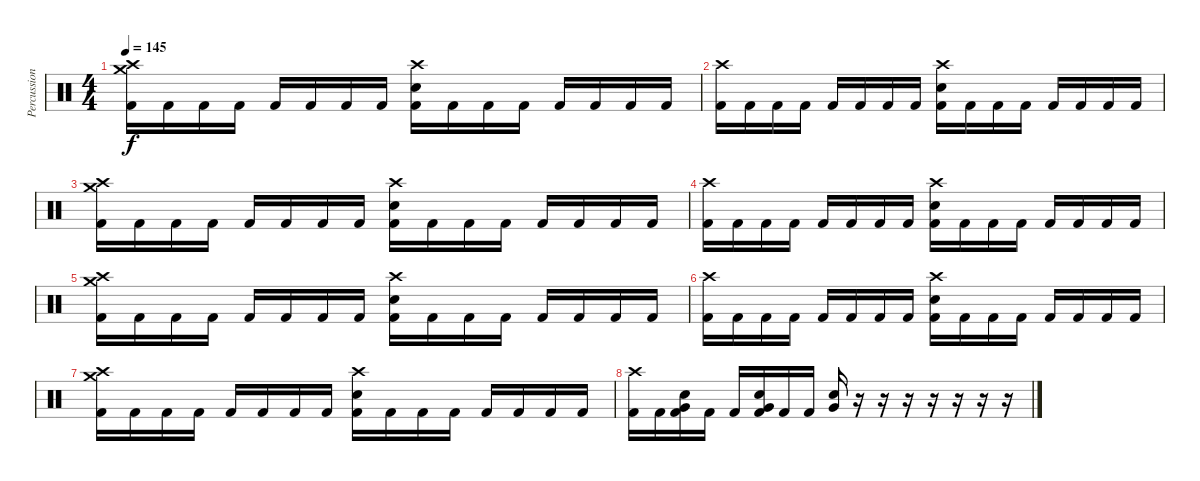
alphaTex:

\track ("Percussion" "Percussion") {instrument percussion}
\staff {score}
\articulation defaults
\ts (4 4)
\section ("" "")
\tempo 145
\clef neutral
\ks c
("Crash high (hit)" "Crash medium (hit)" "Kick (hit) 2").16{dy f} "Kick (hit) 2".16 "Kick (hit) 2".16 "Kick (hit) 2".16 "Kick (hit) 2".16 "Kick (hit) 2".16 "Kick (hit) 2".16 "Kick (hit) 2".16 ("Crash high (hit)" "Snare (hit) 2" "Kick (hit) 2").16 "Kick (hit) 2".16 "Kick (hit) 2".16 "Kick (hit) 2".16 "Kick (hit) 2".16 "Kick (hit) 2".16 "Kick (hit) 2".16 "Kick (hit) 2".16 |
("Crash high (hit)" "Kick (hit) 2").16 "Kick (hit) 2".16 "Kick (hit) 2".16 "Kick (hit) 2".16 "Kick (hit) 2".16 "Kick (hit) 2".16 "Kick (hit) 2".16 "Kick (hit) 2".16 ("Crash high (hit)" "Snare (hit) 2" "Kick (hit) 2").16 "Kick (hit) 2".16 "Kick (hit) 2".16 "Kick (hit) 2".16 "Kick (hit) 2".16 "Kick (hit) 2".16 "Kick (hit) 2".16 "Kick (hit) 2".16 |
("Crash high (hit)" "Crash medium (hit)" "Kick (hit) 2").16 "Kick (hit) 2".16 "Kick (hit) 2".16 "Kick (hit) 2".16 "Kick (hit) 2".16 "Kick (hit) 2".16 "Kick (hit) 2".16 "Kick (hit) 2".16 ("Crash high (hit)" "Snare (hit) 2" "Kick (hit) 2").16 "Kick (hit) 2".16 "Kick (hit) 2".16 "Kick (hit) 2".16 "Kick (hit) 2".16 "Kick (hit) 2".16 "Kick (hit) 2".16 "Kick (hit) 2".16 |
("Crash high (hit)" "Kick (hit) 2").16 "Kick (hit) 2".16 "Kick (hit) 2".16 "Kick (hit) 2".16 "Kick (hit) 2".16 "Kick (hit) 2".16 "Kick (hit) 2".16 "Kick (hit) 2".16 ("Crash high (hit)" "Snare (hit) 2" "Kick (hit) 2").16 "Kick (hit) 2".16 "Kick (hit) 2".16 "Kick (hit) 2".16 "Kick (hit) 2".16 "Kick (hit) 2".16 "Kick (hit) 2".16 "Kick (hit) 2".16 |
("Crash high (hit)" "Crash medium (hit)" "Kick (hit) 2").16 "Kick (hit) 2".16 "Kick (hit) 2".16 "Kick (hit) 2".16 "Kick (hit) 2".16 "Kick (hit) 2".16 "Kick (hit) 2".16 "Kick (hit) 2".16 ("Crash high (hit)" "Snare (hit) 2" "Kick (hit) 2").16 "Kick (hit) 2".16 "Kick (hit) 2".16 "Kick (hit) 2".16 "Kick (hit) 2".16 "Kick (hit) 2".16 "Kick (hit) 2".16 "Kick (hit) 2".16 |
("Crash high (hit)" "Kick (hit) 2").16 "Kick (hit) 2".16 "Kick (hit) 2".16 "Kick (hit) 2".16 "Kick (hit) 2".16 "Kick (hit) 2".16 "Kick (hit) 2".16 "Kick (hit) 2".16 ("Crash high (hit)" "Snare (hit) 2" "Kick (hit) 2").16 "Kick (hit) 2".16 "Kick (hit) 2".16 "Kick (hit) 2".16 "Kick (hit) 2".16 "Kick (hit) 2".16 "Kick (hit) 2".16 "Kick (hit) 2".16 |
("Crash high (hit)" "Crash medium (hit)" "Kick (hit) 2").16 "Kick (hit) 2".16 "Kick (hit) 2".16 "Kick (hit) 2".16 "Kick (hit) 2".16 "Kick (hit) 2".16 "Kick (hit) 2".16 "Kick (hit) 2".16 ("Crash high (hit)" "Snare (hit) 2" "Kick (hit) 2").16 "Kick (hit) 2".16 "Kick (hit) 2".16 "Kick (hit) 2".16 "Kick (hit) 2".16 "Kick (hit) 2".16 "Kick (hit) 2".16 "Kick (hit) 2".16 |
("Crash high (hit)" "Kick (hit) 2").16 "Kick (hit) 2".16 ("Very Low Tom (hit)" "Snare (hit) 2" "Kick (hit) 2").16 "Kick (hit) 2".16 "Kick (hit) 2".16 ("Very Low Tom (hit)" "Snare (hit) 2" "Kick (hit) 2").16 "Kick (hit) 2".16 "Kick (hit) 2".16 ("Very Low Tom (hit)" "Snare (hit) 2").16 r.16 r.16 r.16 r.16 r.16 r.16 r.16
